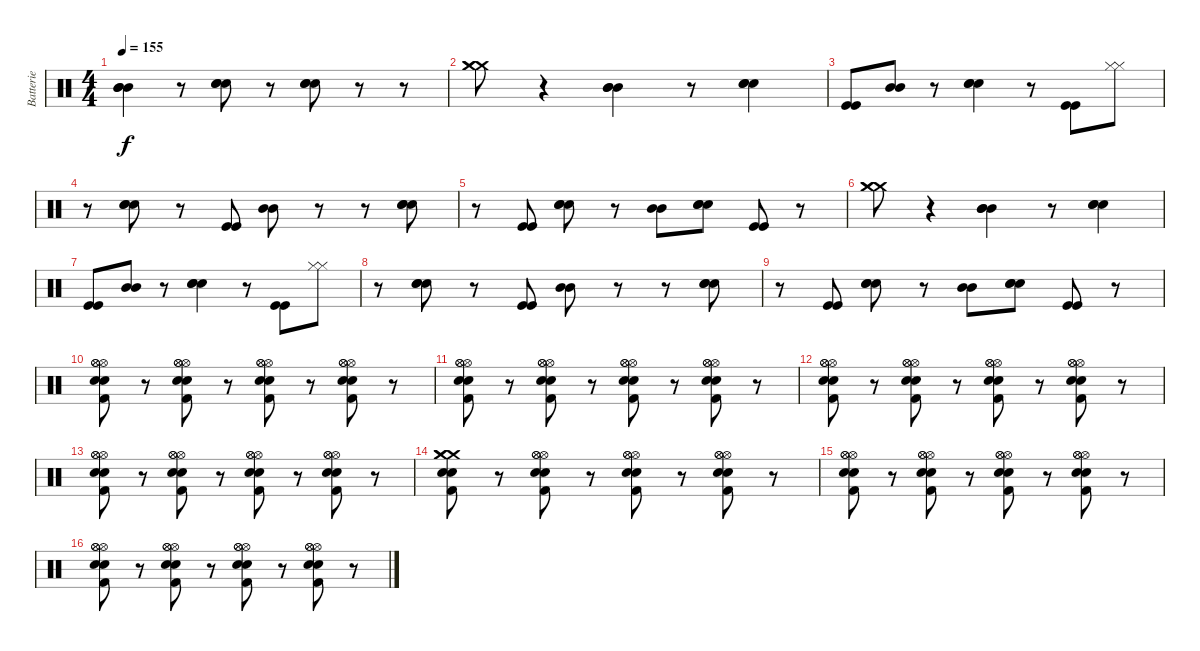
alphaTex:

\track ("Batterie" "Batterie") {instrument percussion}
\staff {score}
\articulation defaults
\ts (4 4)
\tempo 155
\clef neutral
\ks c
("Mid Tom (hit)" "Mid Tom (hit)" "Mid Tom (hit)").4{dy f} r.8 ("Snare (hit) 2" "Snare (hit) 2" "Snare (hit) 2").8 r.8 ("Snare (hit) 2" "Snare (hit) 2" "Snare (hit) 2").8 r.8 r.8 |
("Crash medium (hit)" "Crash medium (hit)" "Crash medium (hit)").8 r.4 ("Mid Tom (hit)" "Mid Tom (hit)" "Mid Tom (hit)").4 r.8 ("Snare (hit) 2" "Snare (hit) 2" "Snare (hit) 2").4 |
("Kick (hit)" "Kick (hit)").8 ("Mid Tom (hit)" "Mid Tom (hit)").8 r.8 ("Snare (hit) 2" "Snare (hit) 2" "Snare (hit) 2").4 r.8 ("Kick (hit)" "Kick (hit)").8 ("Hi-Hat (closed)" "Hi-Hat (closed)").8 |
r.8 ("Snare (hit) 2" "Snare (hit) 2" "Snare (hit) 2").8 r.8 ("Kick (hit)" "Kick (hit)").8 ("Mid Tom (hit)" "Mid Tom (hit)").8 r.8 r.8 ("Snare (hit) 2" "Snare (hit) 2" "Snare (hit) 2").8 |
r.8 ("Kick (hit)" "Kick (hit)").8 ("Snare (hit) 2" "Snare (hit) 2" "Snare (hit) 2").8 r.8 ("Mid Tom (hit)" "Mid Tom (hit)").8 ("Snare (hit) 2" "Snare (hit) 2" "Snare (hit) 2").8 ("Kick (hit)" "Kick (hit)").8 r.8 |
("Crash medium (hit)" "Crash medium (hit)" "Crash medium (hit)").8 r.4 ("Mid Tom (hit)" "Mid Tom (hit)" "Mid Tom (hit)").4 r.8 ("Snare (hit) 2" "Snare (hit) 2" "Snare (hit) 2").4 |
("Kick (hit)" "Kick (hit)").8 ("Mid Tom (hit)" "Mid Tom (hit)").8 r.8 ("Snare (hit) 2" "Snare (hit) 2" "Snare (hit) 2").4 r.8 ("Kick (hit)" "Kick (hit)").8 ("Hi-Hat (closed)" "Hi-Hat (closed)").8 |
r.8 ("Snare (hit) 2" "Snare (hit) 2" "Snare (hit) 2").8 r.8 ("Kick (hit)" "Kick (hit)").8 ("Mid Tom (hit)" "Mid Tom (hit)").8 r.8 r.8 ("Snare (hit) 2" "Snare (hit) 2" "Snare (hit) 2").8 |
r.8 ("Kick (hit)" "Kick (hit)").8 ("Snare (hit) 2" "Snare (hit) 2" "Snare (hit) 2").8 r.8 ("Mid Tom (hit)" "Mid Tom (hit)").8 ("Snare (hit) 2" "Snare (hit) 2" "Snare (hit) 2").8 ("Kick (hit)" "Kick (hit)").8 r.8 |
("Hi-Hat (open)" "Hi-Hat (open)" "Hi-Hat (open)" "Electric Snare (hit)" "Electric Snare (hit)" "Kick (hit) 2").8 r.8 ("Hi-Hat (open)" "Hi-Hat (open)" "Hi-Hat (open)" "Electric Snare (hit)" "Electric Snare (hit)" "Kick (hit) 2").8 r.8 ("Hi-Hat (open)" "Hi-Hat (open)" "Hi-Hat (open)" "Electric Snare (hit)" "Electric Snare (hit)" "Kick (hit) 2").8 r.8 ("Hi-Hat (open)" "Hi-Hat (open)" "Hi-Hat (open)" "Electric Snare (hit)" "Electric Snare (hit)" "Kick (hit) 2").8 r.8 |
("Hi-Hat (open)" "Hi-Hat (open)" "Hi-Hat (open)" "Electric Snare (hit)" "Electric Snare (hit)" "Kick (hit) 2").8 r.8 ("Hi-Hat (open)" "Hi-Hat (open)" "Hi-Hat (open)" "Electric Snare (hit)" "Electric Snare (hit)" "Kick (hit) 2").8 r.8 ("Hi-Hat (open)" "Hi-Hat (open)" "Hi-Hat (open)" "Electric Snare (hit)" "Electric Snare (hit)" "Kick (hit) 2").8 r.8 ("Hi-Hat (open)" "Hi-Hat (open)" "Hi-Hat (open)" "Electric Snare (hit)" "Electric Snare (hit)" "Kick (hit) 2").8 r.8 |
("Hi-Hat (open)" "Hi-Hat (open)" "Hi-Hat (open)" "Electric Snare (hit)" "Electric Snare (hit)" "Kick (hit) 2").8 r.8 ("Hi-Hat (open)" "Hi-Hat (open)" "Hi-Hat (open)" "Electric Snare (hit)" "Electric Snare (hit)" "Kick (hit) 2").8 r.8 ("Hi-Hat (open)" "Hi-Hat (open)" "Hi-Hat (open)" "Electric Snare (hit)" "Electric Snare (hit)" "Kick (hit) 2").8 r.8 ("Hi-Hat (open)" "Hi-Hat (open)" "Hi-Hat (open)" "Electric Snare (hit)" "Electric Snare (hit)" "Kick (hit) 2").8 r.8 |
("Hi-Hat (open)" "Hi-Hat (open)" "Hi-Hat (open)" "Electric Snare (hit)" "Electric Snare (hit)" "Kick (hit) 2").8 r.8 ("Hi-Hat (open)" "Hi-Hat (open)" "Hi-Hat (open)" "Electric Snare (hit)" "Electric Snare (hit)" "Kick (hit) 2").8 r.8 ("Hi-Hat (open)" "Hi-Hat (open)" "Hi-Hat (open)" "Electric Snare (hit)" "Electric Snare (hit)" "Kick (hit) 2").8 r.8 ("Hi-Hat (open)" "Hi-Hat (open)" "Hi-Hat (open)" "Electric Snare (hit)" "Electric Snare (hit)" "Kick (hit) 2").8 r.8 |
("Crash medium (hit)" "Crash medium (hit)" "Crash medium (hit)" "Electric Snare (hit)" "Electric Snare (hit)" "Kick (hit) 2").8 r.8 ("Hi-Hat (open)" "Hi-Hat (open)" "Hi-Hat (open)" "Electric Snare (hit)" "Electric Snare (hit)" "Kick (hit) 2").8 r.8 ("Hi-Hat (open)" "Hi-Hat (open)" "Hi-Hat (open)" "Electric Snare (hit)" "Electric Snare (hit)" "Kick (hit) 2").8 r.8 ("Hi-Hat (open)" "Hi-Hat (open)" "Hi-Hat (open)" "Electric Snare (hit)" "Electric Snare (hit)" "Kick (hit) 2").8 r.8 |
("Hi-Hat (open)" "Hi-Hat (open)" "Hi-Hat (open)" "Electric Snare (hit)" "Electric Snare (hit)" "Kick (hit) 2").8 r.8 ("Hi-Hat (open)" "Hi-Hat (open)" "Hi-Hat (open)" "Electric Snare (hit)" "Electric Snare (hit)" "Kick (hit) 2").8 r.8 ("Hi-Hat (open)" "Hi-Hat (open)" "Hi-Hat (open)" "Electric Snare (hit)" "Electric Snare (hit)" "Kick (hit) 2").8 r.8 ("Hi-Hat (open)" "Hi-Hat (open)" "Hi-Hat (open)" "Electric Snare (hit)" "Electric Snare (hit)" "Kick (hit) 2").8 r.8 |
("Hi-Hat (open)" "Hi-Hat (open)" "Hi-Hat (open)" "Electric Snare (hit)" "Electric Snare (hit)" "Kick (hit) 2").8 r.8 ("Hi-Hat (open)" "Hi-Hat (open)" "Hi-Hat (open)" "Electric Snare (hit)" "Electric Snare (hit)" "Kick (hit) 2").8 r.8 ("Hi-Hat (open)" "Hi-Hat (open)" "Hi-Hat (open)" "Electric Snare (hit)" "Electric Snare (hit)" "Kick (hit) 2").8 r.8 ("Hi-Hat (open)" "Hi-Hat (open)" "Hi-Hat (open)" "Electric Snare (hit)" "Electric Snare (hit)" "Kick (hit) 2").8 r.8
